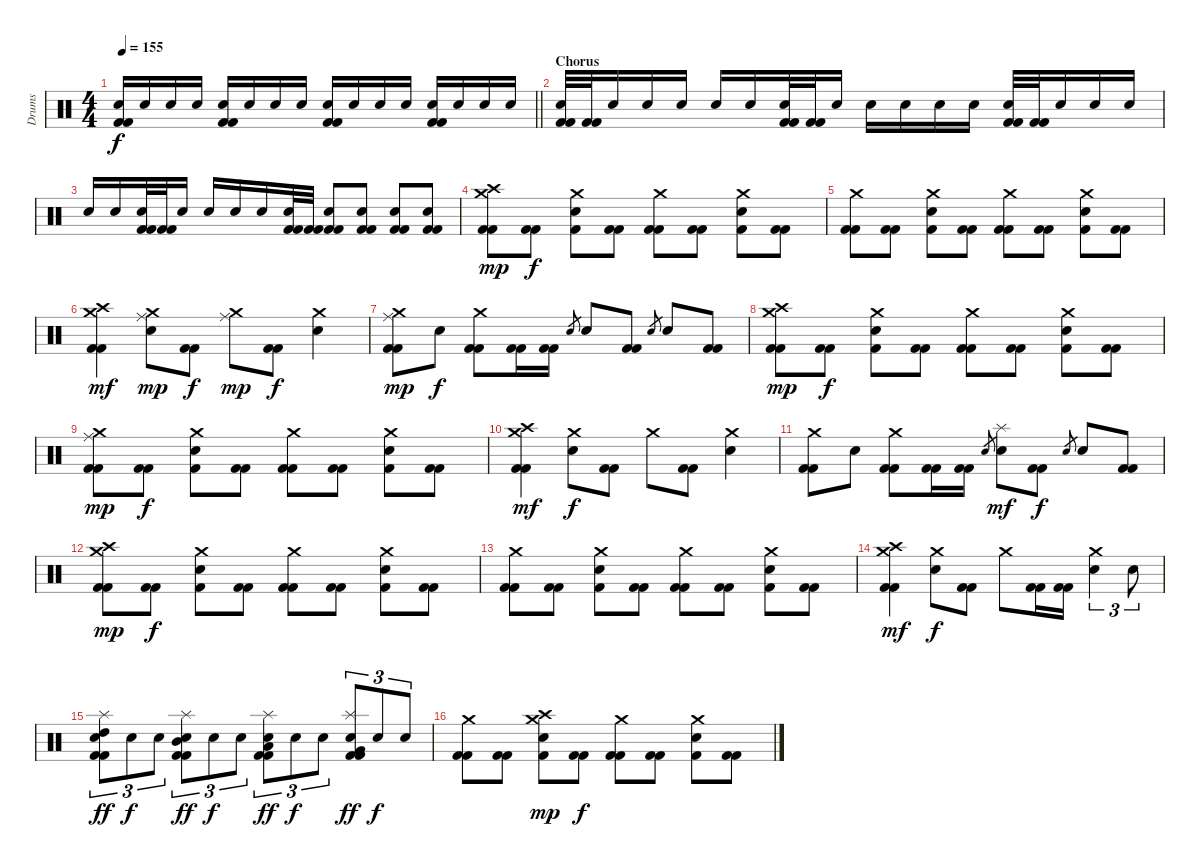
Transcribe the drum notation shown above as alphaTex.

\track ("Drums" "Drums") {instrument percussion}
\staff {score}
\articulation defaults
\ts (4 4)
\tempo 155
\clef neutral
\barLineRight lightlight
\ks c
("Electric Snare (hit)" "Kick (hit) 2" "Kick (hit) 2").16{dy f} "Electric Snare (hit)".16 "Electric Snare (hit)".16 "Electric Snare (hit)".16 ("Electric Snare (hit)" "Kick (hit) 2" "Kick (hit) 2").16 "Electric Snare (hit)".16 "Electric Snare (hit)".16 "Electric Snare (hit)".16 ("Electric Snare (hit)" "Kick (hit) 2" "Kick (hit) 2").16 "Electric Snare (hit)".16 "Electric Snare (hit)".16 "Electric Snare (hit)".16 ("Electric Snare (hit)" "Kick (hit) 2" "Kick (hit) 2").16 "Electric Snare (hit)".16 "Electric Snare (hit)".16 "Electric Snare (hit)".16 |
\section ("" "Chorus")
("Electric Snare (hit)" "Kick (hit) 2" "Kick (hit) 2").32 ("Kick (hit) 2" "Kick (hit) 2").32 "Electric Snare (hit)".16 "Electric Snare (hit)".16 "Electric Snare (hit)".16 "Electric Snare (hit)".16 "Electric Snare (hit)".16 ("Electric Snare (hit)" "Kick (hit) 2" "Kick (hit) 2").32 ("Kick (hit) 2" "Kick (hit) 2").32 "Electric Snare (hit)".16 "Electric Snare (hit)".16 "Electric Snare (hit)".16 "Electric Snare (hit)".16 "Electric Snare (hit)".16 ("Electric Snare (hit)" "Kick (hit) 2" "Kick (hit) 2").32 ("Kick (hit) 2" "Kick (hit) 2").32 "Electric Snare (hit)".16 "Electric Snare (hit)".16 "Electric Snare (hit)".16 |
"Electric Snare (hit)".16 "Electric Snare (hit)".16 ("Electric Snare (hit)" "Kick (hit) 2" "Kick (hit) 2").32 ("Kick (hit) 2" "Kick (hit) 2").32 "Electric Snare (hit)".16 "Electric Snare (hit)".16 "Electric Snare (hit)".16 "Electric Snare (hit)".16 ("Electric Snare (hit)" "Kick (hit) 2" "Kick (hit) 2").32 ("Kick (hit) 2" "Kick (hit) 2").32 ("Electric Snare (hit)" "Kick (hit) 2" "Kick (hit) 2").8 ("Electric Snare (hit)" "Kick (hit) 2" "Kick (hit) 2").8 ("Electric Snare (hit)" "Kick (hit) 2" "Kick (hit) 2").8 ("Electric Snare (hit)" "Kick (hit) 2" "Kick (hit) 2").8 |
("Crash medium (hit)" "Crash high (hit)" "Kick (hit) 2" "Kick (hit) 2").8{dy mp} ("Kick (hit) 2" "Kick (hit) 2").8{dy f} ("Crash medium (hit)" "Electric Snare (hit)" "Kick (hit) 2").8 ("Kick (hit) 2" "Kick (hit) 2").8 ("Crash medium (hit)" "Kick (hit) 2" "Kick (hit) 2").8 ("Kick (hit) 2" "Kick (hit) 2").8 ("Crash medium (hit)" "Electric Snare (hit)" "Kick (hit) 2").8 ("Kick (hit) 2" "Kick (hit) 2").8 |
("Crash medium (hit)" "Kick (hit) 2" "Kick (hit) 2").8 ("Kick (hit) 2" "Kick (hit) 2").8 ("Crash medium (hit)" "Electric Snare (hit)" "Kick (hit) 2").8 ("Kick (hit) 2" "Kick (hit) 2").8 ("Crash medium (hit)" "Kick (hit) 2" "Kick (hit) 2").8 ("Kick (hit) 2" "Kick (hit) 2").8 ("Crash medium (hit)" "Electric Snare (hit)" "Kick (hit) 2").8 ("Kick (hit) 2" "Kick (hit) 2").8 |
("Crash medium (hit)" "Crash high (hit)" "Kick (hit) 2" "Kick (hit) 2").4{dy mf} ("Crash medium (hit)" "Ride (middle)" "Electric Snare (hit)").8{dy mp} ("Kick (hit) 2" "Kick (hit) 2").8{dy f} ("Crash medium (hit)" "Ride (middle)").8{dy mp} ("Kick (hit) 2" "Kick (hit) 2").8{dy f} ("Crash medium (hit)" "Electric Snare (hit)").4 |
("Crash medium (hit)" "Ride (middle)" "Kick (hit) 2" "Kick (hit) 2").8{dy mp} "Electric Snare (hit)".8{dy f} ("Crash medium (hit)" "Kick (hit) 2" "Kick (hit) 2").8 ("Kick (hit) 2" "Kick (hit) 2").16 ("Kick (hit) 2" "Kick (hit) 2").16 "Electric Snare (hit)".8{gr} "Electric Snare (hit)".8 ("Kick (hit) 2" "Kick (hit) 2").8 "Electric Snare (hit)".8{gr} "Electric Snare (hit)".8 ("Kick (hit) 2" "Kick (hit) 2").8 |
("Crash medium (hit)" "Crash high (hit)" "Kick (hit) 2" "Kick (hit) 2").8{dy mp} ("Kick (hit) 2" "Kick (hit) 2").8{dy f} ("Crash medium (hit)" "Electric Snare (hit)" "Kick (hit) 2").8 ("Kick (hit) 2" "Kick (hit) 2").8 ("Crash medium (hit)" "Kick (hit) 2" "Kick (hit) 2").8 ("Kick (hit) 2" "Kick (hit) 2").8 ("Crash medium (hit)" "Electric Snare (hit)" "Kick (hit) 2").8 ("Kick (hit) 2" "Kick (hit) 2").8 |
("Crash medium (hit)" "Ride (middle)" "Kick (hit) 2" "Kick (hit) 2").8{dy mp} ("Kick (hit) 2" "Kick (hit) 2").8{dy f} ("Crash medium (hit)" "Electric Snare (hit)" "Kick (hit) 2").8 ("Kick (hit) 2" "Kick (hit) 2").8 ("Crash medium (hit)" "Kick (hit) 2" "Kick (hit) 2").8 ("Kick (hit) 2" "Kick (hit) 2").8 ("Crash medium (hit)" "Electric Snare (hit)" "Kick (hit) 2").8 ("Kick (hit) 2" "Kick (hit) 2").8 |
("Crash medium (hit)" "Crash high (hit)" "Kick (hit) 2" "Kick (hit) 2").4{dy mf} ("Crash medium (hit)" "Electric Snare (hit)").8{dy f} ("Kick (hit) 2" "Kick (hit) 2").8 "Crash medium (hit)".8 ("Kick (hit) 2" "Kick (hit) 2").8 ("Crash medium (hit)" "Electric Snare (hit)").4 |
("Crash medium (hit)" "Kick (hit) 2" "Kick (hit) 2").8 "Electric Snare (hit)".8 ("Crash medium (hit)" "Kick (hit) 2" "Kick (hit) 2").8 ("Kick (hit) 2" "Kick (hit) 2").16 ("Kick (hit) 2" "Kick (hit) 2").16 "Electric Snare (hit)".8{gr} ("Splash (hit)" "Electric Snare (hit)").8{dy mf} ("Kick (hit) 2" "Kick (hit) 2").8{dy f} "Electric Snare (hit)".8{gr} "Electric Snare (hit)".8 ("Kick (hit) 2" "Kick (hit) 2").8 |
("Crash medium (hit)" "Crash high (hit)" "Kick (hit) 2" "Kick (hit) 2").8{dy mp} ("Kick (hit) 2" "Kick (hit) 2").8{dy f} ("Crash medium (hit)" "Electric Snare (hit)" "Kick (hit) 2").8 ("Kick (hit) 2" "Kick (hit) 2").8 ("Crash medium (hit)" "Kick (hit) 2" "Kick (hit) 2").8 ("Kick (hit) 2" "Kick (hit) 2").8 ("Crash medium (hit)" "Electric Snare (hit)" "Kick (hit) 2").8 ("Kick (hit) 2" "Kick (hit) 2").8 |
("Crash medium (hit)" "Kick (hit) 2" "Kick (hit) 2").8 ("Kick (hit) 2" "Kick (hit) 2").8 ("Crash medium (hit)" "Electric Snare (hit)" "Kick (hit) 2").8 ("Kick (hit) 2" "Kick (hit) 2").8 ("Crash medium (hit)" "Kick (hit) 2" "Kick (hit) 2").8 ("Kick (hit) 2" "Kick (hit) 2").8 ("Crash medium (hit)" "Electric Snare (hit)" "Kick (hit) 2").8 ("Kick (hit) 2" "Kick (hit) 2").8 |
("Crash medium (hit)" "Crash high (hit)" "Kick (hit) 2" "Kick (hit) 2").4{dy mf} ("Crash medium (hit)" "Electric Snare (hit)").8{dy f} ("Kick (hit) 2" "Kick (hit) 2").8 "Crash medium (hit)".8 ("Kick (hit) 2" "Kick (hit) 2").16 ("Kick (hit) 2" "Kick (hit) 2").16 ("Crash medium (hit)" "Electric Snare (hit)").4{tu (3 2)} "Electric Snare (hit)".8{tu (3 2)} |
("Splash (hit)" "High Tom (hit)" "Electric Snare (hit)" "Kick (hit) 2" "Kick (hit) 2").8{tu (3 2) dy ff} "Electric Snare (hit)".8{tu (3 2) dy f} "Electric Snare (hit)".8{tu (3 2)} ("Splash (hit)" "Mid Tom (hit)" "Electric Snare (hit)" "Kick (hit) 2" "Kick (hit) 2").8{tu (3 2) dy ff} "Electric Snare (hit)".8{tu (3 2) dy f} "Electric Snare (hit)".8{tu (3 2)} ("Splash (hit)" "Low Tom (hit)" "Electric Snare (hit)" "Kick (hit) 2" "Kick (hit) 2").8{tu (3 2) dy ff} "Electric Snare (hit)".8{tu (3 2) dy f} "Electric Snare (hit)".8{tu (3 2)} ("Splash (hit)" "Very Low Tom (hit)" "Electric Snare (hit)" "Kick (hit) 2" "Kick (hit) 2").8{tu (3 2) dy ff} "Electric Snare (hit)".8{tu (3 2) dy f} "Electric Snare (hit)".8{tu (3 2)} |
("Crash medium (hit)" "Kick (hit) 2" "Kick (hit) 2").8 ("Kick (hit) 2" "Kick (hit) 2").8 ("Crash medium (hit)" "Crash high (hit)" "Electric Snare (hit)" "Kick (hit) 2").8{dy mp} ("Kick (hit) 2" "Kick (hit) 2").8{dy f} ("Crash medium (hit)" "Kick (hit) 2" "Kick (hit) 2").8 ("Kick (hit) 2" "Kick (hit) 2").8 ("Crash medium (hit)" "Electric Snare (hit)" "Kick (hit) 2").8 ("Kick (hit) 2" "Kick (hit) 2").8
